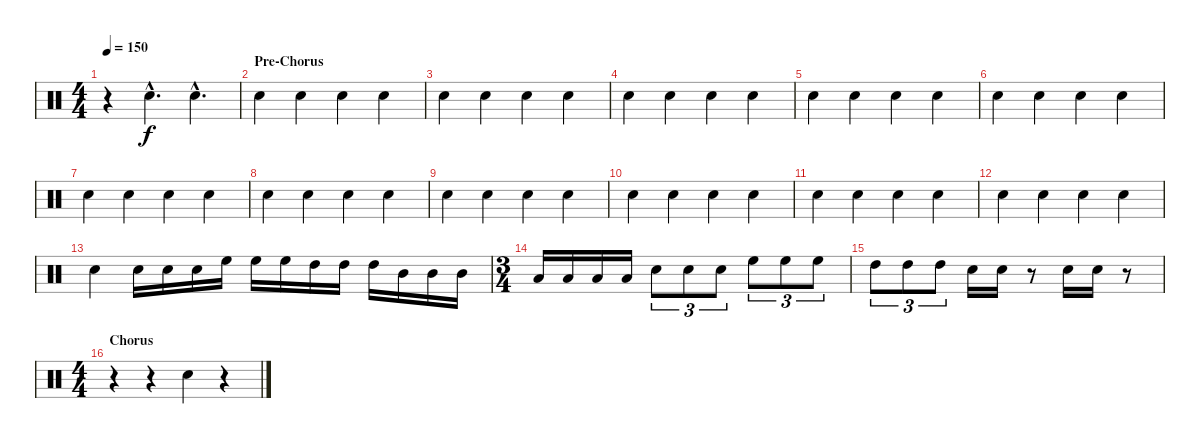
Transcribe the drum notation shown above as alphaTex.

\track "" {instrument percussion}
\staff {score}
\articulation defaults
\ts (4 4)
\tempo 150
\clef neutral
\ks c
r.4{dy f} "Electric Snare (hit)"{hac}.4{d} "Electric Snare (hit)"{hac}.4{d} |
\section ("" "Pre-Chorus")
"Electric Snare (hit)".4 "Electric Snare (hit)".4 "Electric Snare (hit)".4 "Electric Snare (hit)".4 |
"Electric Snare (hit)".4 "Electric Snare (hit)".4 "Electric Snare (hit)".4 "Electric Snare (hit)".4 |
"Electric Snare (hit)".4 "Electric Snare (hit)".4 "Electric Snare (hit)".4 "Electric Snare (hit)".4 |
"Electric Snare (hit)".4 "Electric Snare (hit)".4 "Electric Snare (hit)".4 "Electric Snare (hit)".4 |
"Electric Snare (hit)".4 "Electric Snare (hit)".4 "Electric Snare (hit)".4 "Electric Snare (hit)".4 |
"Electric Snare (hit)".4 "Electric Snare (hit)".4 "Electric Snare (hit)".4 "Electric Snare (hit)".4 |
"Electric Snare (hit)".4 "Electric Snare (hit)".4 "Electric Snare (hit)".4 "Electric Snare (hit)".4 |
"Electric Snare (hit)".4 "Electric Snare (hit)".4 "Electric Snare (hit)".4 "Electric Snare (hit)".4 |
"Electric Snare (hit)".4 "Electric Snare (hit)".4 "Electric Snare (hit)".4 "Electric Snare (hit)".4 |
"Electric Snare (hit)".4 "Electric Snare (hit)".4 "Electric Snare (hit)".4 "Electric Snare (hit)".4 |
"Electric Snare (hit)".4 "Electric Snare (hit)".4 "Electric Snare (hit)".4 "Electric Snare (hit)".4 |
"Electric Snare (hit)".4 "Electric Snare (hit)".16 "Electric Snare (hit)".16 "Electric Snare (hit)".16 "High Floor Tom (hit)".16 "High Floor Tom (hit)".16 "High Floor Tom (hit)".16 "High Tom (hit)".16 "High Tom (hit)".16 "High Tom (hit)".16 "Mid Tom (hit)".16 "Mid Tom (hit)".16 "Mid Tom (hit)".16 |
\ts (3 4)
"Low Tom (hit)".16 "Low Tom (hit)".16 "Low Tom (hit)".16 "Low Tom (hit)".16 "Electric Snare (hit)".8{tu (3 2)} "Electric Snare (hit)".8{tu (3 2)} "Electric Snare (hit)".8{tu (3 2)} "High Floor Tom (hit)".8{tu (3 2)} "High Floor Tom (hit)".8{tu (3 2)} "High Floor Tom (hit)".8{tu (3 2)} |
"High Tom (hit)".8{tu (3 2)} "High Tom (hit)".8{tu (3 2)} "High Tom (hit)".8{tu (3 2)} "Electric Snare (hit)".16 "Electric Snare (hit)".16 r.8 "Electric Snare (hit)".16 "Electric Snare (hit)".16 r.8 |
\ts (4 4)
\section ("" "Chorus")
r.4 r.4 "Electric Snare (hit)".4 r.4
